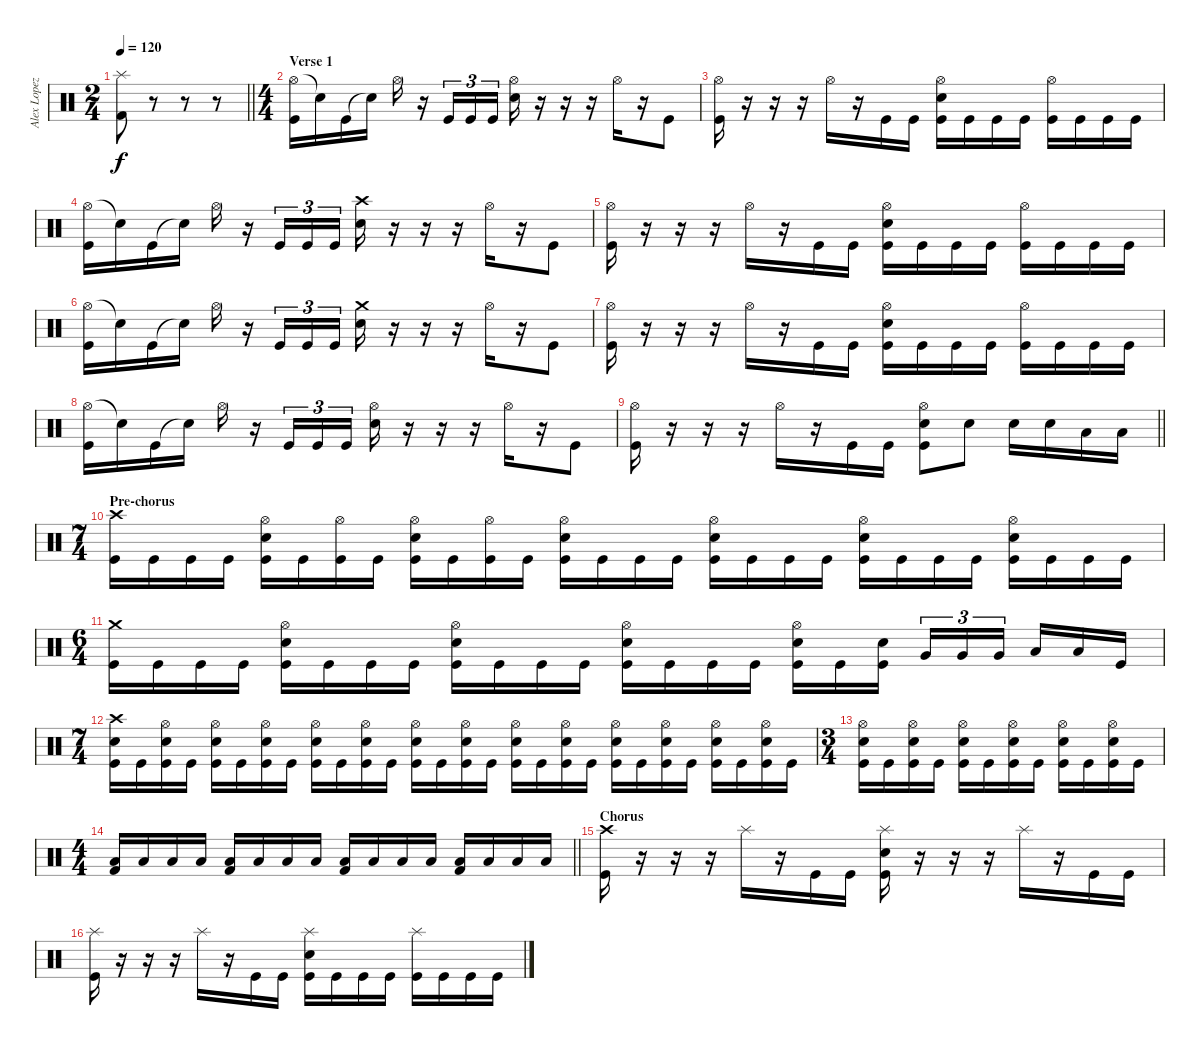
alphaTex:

\track ("Alex Lopez - Drums" "Alex Lopez") {instrument percussion}
\staff {score}
\articulation defaults
\ts (2 4)
\tempo 120
\clef neutral
\barLineRight lightlight
\ks c
("Splash (hit)" "Kick (hit) 2").8{dy f} r.8{volume 0} r.8 r.8 |
\ts (4 4)
\section ("" "Verse 1")
("Hi-Hat (open)" "Kick (hit)").16{volume 13} "Snare (hit)"{t}.16 "Kick (hit)".16 "Snare (hit)"{t}.16 "Hi-Hat (open)".16 r.16 "Kick (hit)".16{tu (3 2)} "Kick (hit)".16{tu (3 2)} "Kick (hit)".16{tu (3 2)} ("Hi-Hat (open)" "Electric Snare (hit)").16 r.16 r.16 r.16 "Hi-Hat (open)".16 r.16 "Kick (hit)".8 |
("Hi-Hat (open)" "Kick (hit)").16 r.16 r.16 r.16 "Hi-Hat (open)".16 r.16 "Kick (hit)".16 "Kick (hit)".16 ("Hi-Hat (open)" "Electric Snare (hit)" "Kick (hit)").16 "Kick (hit)".16 "Kick (hit)".16 "Kick (hit)".16 ("Hi-Hat (open)" "Kick (hit)").16 "Kick (hit)".16 "Kick (hit)".16 "Kick (hit)".16 |
("Hi-Hat (open)" "Kick (hit)").16{volume 13} "Snare (hit)"{t}.16 "Kick (hit)".16 "Snare (hit)"{t}.16 "Hi-Hat (open)".16 r.16 "Kick (hit)".16{tu (3 2)} "Kick (hit)".16{tu (3 2)} "Kick (hit)".16{tu (3 2)} ("Crash high (hit)" "Electric Snare (hit)").16 r.16 r.16 r.16 "Hi-Hat (open)".16 r.16 "Kick (hit)".8 |
("Hi-Hat (open)" "Kick (hit)").16 r.16 r.16 r.16 "Hi-Hat (open)".16 r.16 "Kick (hit)".16 "Kick (hit)".16 ("Hi-Hat (open)" "Electric Snare (hit)" "Kick (hit)").16 "Kick (hit)".16 "Kick (hit)".16 "Kick (hit)".16 ("Hi-Hat (open)" "Kick (hit)").16 "Kick (hit)".16 "Kick (hit)".16 "Kick (hit)".16 |
("Hi-Hat (open)" "Kick (hit)").16{volume 13} "Snare (hit)"{t}.16 "Kick (hit)".16 "Snare (hit)"{t}.16 "Hi-Hat (open)".16 r.16 "Kick (hit)".16{tu (3 2)} "Kick (hit)".16{tu (3 2)} "Kick (hit)".16{tu (3 2)} ("Crash medium (hit)" "Electric Snare (hit)").16 r.16 r.16 r.16 "Hi-Hat (open)".16 r.16 "Kick (hit)".8 |
("Hi-Hat (open)" "Kick (hit)").16 r.16 r.16 r.16 "Hi-Hat (open)".16 r.16 "Kick (hit)".16 "Kick (hit)".16 ("Hi-Hat (open)" "Electric Snare (hit)" "Kick (hit)").16 "Kick (hit)".16 "Kick (hit)".16 "Kick (hit)".16 ("Hi-Hat (open)" "Kick (hit)").16 "Kick (hit)".16 "Kick (hit)".16 "Kick (hit)".16 |
("Hi-Hat (open)" "Kick (hit)").16{volume 13} "Snare (hit)"{t}.16 "Kick (hit)".16 "Snare (hit)"{t}.16 "Hi-Hat (open)".16 r.16 "Kick (hit)".16{tu (3 2)} "Kick (hit)".16{tu (3 2)} "Kick (hit)".16{tu (3 2)} ("Hi-Hat (open)" "Electric Snare (hit)").16 r.16 r.16 r.16 "Hi-Hat (open)".16 r.16 "Kick (hit)".8 |
\barLineRight lightlight
("Hi-Hat (open)" "Kick (hit)").16 r.16 r.16 r.16 "Hi-Hat (open)".16 r.16 "Kick (hit)".16 "Kick (hit)".16 ("Hi-Hat (open)" "Electric Snare (hit)" "Kick (hit)").8 "Electric Snare (hit)".8 "Electric Snare (hit)".16 "Electric Snare (hit)".16 "Low Floor Tom (hit)".16 "Low Floor Tom (hit)".16 |
\ts (7 4)
\section ("" "Pre-chorus")
("Crash high (hit)" "Kick (hit)").16 "Kick (hit)".16 "Kick (hit)".16 "Kick (hit)".16 ("Hi-Hat (open)" "Electric Snare (hit)" "Kick (hit)").16 "Kick (hit)".16 ("Hi-Hat (open)" "Kick (hit)").16 "Kick (hit)".16 ("Hi-Hat (open)" "Electric Snare (hit)" "Kick (hit)").16 "Kick (hit)".16 ("Hi-Hat (open)" "Kick (hit)").16 "Kick (hit)".16 ("Hi-Hat (open)" "Electric Snare (hit)" "Kick (hit)").16 "Kick (hit)".16 "Kick (hit)".16 "Kick (hit)".16 ("Hi-Hat (open)" "Electric Snare (hit)" "Kick (hit)").16 "Kick (hit)".16 "Kick (hit)".16 "Kick (hit)".16 ("Hi-Hat (open)" "Electric Snare (hit)" "Kick (hit)").16 "Kick (hit)".16 "Kick (hit)".16 "Kick (hit)".16 ("Hi-Hat (open)" "Electric Snare (hit)" "Kick (hit)").16 "Kick (hit)".16 "Kick (hit)".16 "Kick (hit)".16 |
\ts (6 4)
("Crash medium (hit)" "Kick (hit)").16 "Kick (hit)".16 "Kick (hit)".16 "Kick (hit)".16 ("Hi-Hat (open)" "Electric Snare (hit)" "Kick (hit)").16 "Kick (hit)".16 "Kick (hit)".16 "Kick (hit)".16 ("Hi-Hat (open)" "Electric Snare (hit)" "Kick (hit)").16 "Kick (hit)".16 "Kick (hit)".16 "Kick (hit)".16 ("Hi-Hat (open)" "Electric Snare (hit)" "Kick (hit)").16 "Kick (hit)".16 "Kick (hit)".16 "Kick (hit)".16 ("Hi-Hat (open)" "Electric Snare (hit)" "Kick (hit)").16 "Kick (hit)".16 ("Electric Snare (hit)" "Kick (hit)").16{beam splitsecondary} "Very Low Tom (hit)".16{tu (3 2)} "Very Low Tom (hit)".16{tu (3 2)} "Very Low Tom (hit)".16{tu (3 2) beam splitsecondary} "Low Floor Tom (hit)".16 "Low Floor Tom (hit)".16 "Kick (hit)".16 |
\ts (7 4)
("Crash high (hit)" "Electric Snare (hit)" "Kick (hit)").16 "Kick (hit)".16 ("Hi-Hat (open)" "Electric Snare (hit)" "Kick (hit)").16 "Kick (hit)".16 ("Hi-Hat (open)" "Electric Snare (hit)" "Kick (hit)").16 "Kick (hit)".16 ("Hi-Hat (open)" "Electric Snare (hit)" "Kick (hit)").16 "Kick (hit)".16 ("Hi-Hat (open)" "Electric Snare (hit)" "Kick (hit)").16 "Kick (hit)".16 ("Hi-Hat (open)" "Electric Snare (hit)" "Kick (hit)").16 "Kick (hit)".16 ("Hi-Hat (open)" "Electric Snare (hit)" "Kick (hit)").16 "Kick (hit)".16 ("Hi-Hat (open)" "Electric Snare (hit)" "Kick (hit)").16 "Kick (hit)".16 ("Hi-Hat (open)" "Electric Snare (hit)" "Kick (hit)").16 "Kick (hit)".16 ("Hi-Hat (open)" "Electric Snare (hit)" "Kick (hit)").16 "Kick (hit)".16 ("Hi-Hat (open)" "Electric Snare (hit)" "Kick (hit)").16 "Kick (hit)".16 ("Hi-Hat (open)" "Electric Snare (hit)" "Kick (hit)").16 "Kick (hit)".16 ("Hi-Hat (open)" "Electric Snare (hit)" "Kick (hit)").16 "Kick (hit)".16 ("Hi-Hat (open)" "Electric Snare (hit)" "Kick (hit)").16 "Kick (hit)".16 |
\ts (3 4)
("Hi-Hat (open)" "Electric Snare (hit)" "Kick (hit)").16 "Kick (hit)".16 ("Hi-Hat (open)" "Electric Snare (hit)" "Kick (hit)").16 "Kick (hit)".16 ("Hi-Hat (open)" "Electric Snare (hit)" "Kick (hit)").16 "Kick (hit)".16 ("Hi-Hat (open)" "Electric Snare (hit)" "Kick (hit)").16 "Kick (hit)".16 ("Hi-Hat (open)" "Electric Snare (hit)" "Kick (hit)").16 "Kick (hit)".16 ("Hi-Hat (open)" "Electric Snare (hit)" "Kick (hit)").16 "Kick (hit)".16 |
\ts (4 4)
\barLineRight lightlight
("Low Tom (hit)" "Kick (hit) 2").16 "Low Floor Tom (hit)".16 "Low Tom (hit)".16 "Low Floor Tom (hit)".16 ("Low Floor Tom (hit)" "Kick (hit) 2").16 "Low Floor Tom (hit)".16 "Low Tom (hit)".16 "Low Floor Tom (hit)".16 ("Low Tom (hit)" "Kick (hit) 2").16 "Low Floor Tom (hit)".16 "Low Floor Tom (hit)".16 "Low Floor Tom (hit)".16 ("Low Tom (hit)" "Kick (hit) 2").16 "Low Floor Tom (hit)".16 "Low Tom (hit)".16 "Low Floor Tom (hit)".16 |
\section ("" "Chorus")
("Crash high (hit)" "Kick (hit)").16 r.16 r.16 r.16 "Splash (hit)".16 r.16 "Kick (hit)".16 "Kick (hit)".16 ("Splash (hit)" "Electric Snare (hit)" "Kick (hit)").16 r.16 r.16 r.16 "Splash (hit)".16 r.16 "Kick (hit)".16 "Kick (hit)".16 |
("Splash (hit)" "Kick (hit)").16 r.16 r.16 r.16 "Splash (hit)".16 r.16 "Kick (hit)".16 "Kick (hit)".16 ("Splash (hit)" "Electric Snare (hit)" "Kick (hit)").16 "Kick (hit)".16 "Kick (hit)".16 "Kick (hit)".16 ("Splash (hit)" "Kick (hit)").16 "Kick (hit)".16 "Kick (hit)".16 "Kick (hit)".16
